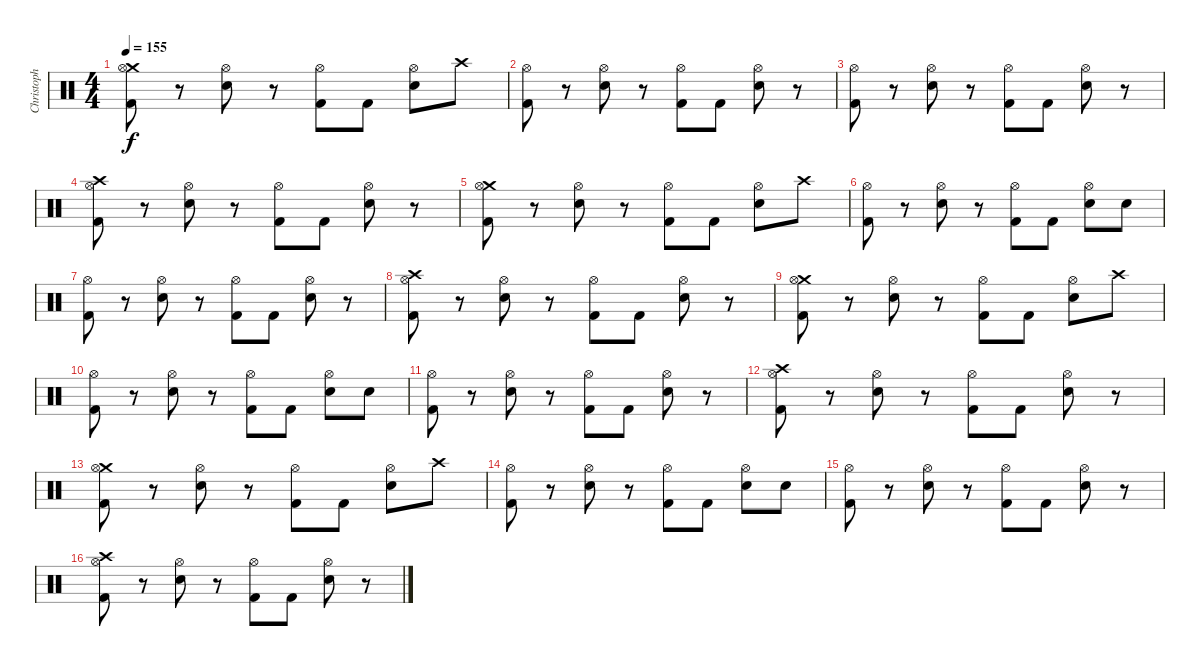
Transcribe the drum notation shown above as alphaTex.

\track ("Christoph \"Doom\" Schneider" "Christoph ") {instrument percussion}
\staff {score}
\articulation defaults
\ts (4 4)
\tempo 155
\clef neutral
\ks c
("Kick (hit) 2" "Crash medium (hit)" "Hi-Hat (open)").8{dy f} r.8 ("Electric Snare (hit)" "Hi-Hat (open)").8 r.8 ("Kick (hit) 2" "Hi-Hat (open)").8 "Kick (hit) 2".8 ("Electric Snare (hit)" "Hi-Hat (open)").8 "Crash high (hit)".8 |
("Kick (hit) 2" "Hi-Hat (open)").8 r.8 ("Electric Snare (hit)" "Hi-Hat (open)").8 r.8 ("Kick (hit) 2" "Hi-Hat (open)").8 "Kick (hit) 2".8 ("Electric Snare (hit)" "Hi-Hat (open)").8 r.8 |
("Kick (hit) 2" "Hi-Hat (open)").8 r.8 ("Electric Snare (hit)" "Hi-Hat (open)").8 r.8 ("Kick (hit) 2" "Hi-Hat (open)").8 "Kick (hit) 2".8 ("Electric Snare (hit)" "Hi-Hat (open)").8 r.8 |
("Kick (hit) 2" "Crash high (hit)" "Hi-Hat (open)").8 r.8 ("Electric Snare (hit)" "Hi-Hat (open)").8 r.8 ("Kick (hit) 2" "Hi-Hat (open)").8 "Kick (hit) 2".8 ("Electric Snare (hit)" "Hi-Hat (open)").8 r.8 |
("Kick (hit) 2" "Crash medium (hit)" "Hi-Hat (open)").8 r.8 ("Electric Snare (hit)" "Hi-Hat (open)").8 r.8 ("Kick (hit) 2" "Hi-Hat (open)").8 "Kick (hit) 2".8 ("Electric Snare (hit)" "Hi-Hat (open)").8 "Crash high (hit)".8 |
("Kick (hit) 2" "Hi-Hat (open)").8 r.8 ("Electric Snare (hit)" "Hi-Hat (open)").8 r.8 ("Kick (hit) 2" "Hi-Hat (open)").8 "Kick (hit) 2".8 ("Electric Snare (hit)" "Hi-Hat (open)").8 "Electric Snare (hit)".8 |
("Kick (hit) 2" "Hi-Hat (open)").8 r.8 ("Electric Snare (hit)" "Hi-Hat (open)").8 r.8 ("Kick (hit) 2" "Hi-Hat (open)").8 "Kick (hit) 2".8 ("Electric Snare (hit)" "Hi-Hat (open)").8 r.8 |
("Kick (hit) 2" "Crash high (hit)" "Hi-Hat (open)").8 r.8 ("Electric Snare (hit)" "Hi-Hat (open)").8 r.8 ("Kick (hit) 2" "Hi-Hat (open)").8 "Kick (hit) 2".8 ("Electric Snare (hit)" "Hi-Hat (open)").8 r.8 |
("Kick (hit) 2" "Crash medium (hit)" "Hi-Hat (open)").8 r.8 ("Electric Snare (hit)" "Hi-Hat (open)").8 r.8 ("Kick (hit) 2" "Hi-Hat (open)").8 "Kick (hit) 2".8 ("Electric Snare (hit)" "Hi-Hat (open)").8 "Crash high (hit)".8 |
("Kick (hit) 2" "Hi-Hat (open)").8 r.8 ("Electric Snare (hit)" "Hi-Hat (open)").8 r.8 ("Kick (hit) 2" "Hi-Hat (open)").8 "Kick (hit) 2".8 ("Electric Snare (hit)" "Hi-Hat (open)").8 "Electric Snare (hit)".8 |
("Kick (hit) 2" "Hi-Hat (open)").8 r.8 ("Electric Snare (hit)" "Hi-Hat (open)").8 r.8 ("Kick (hit) 2" "Hi-Hat (open)").8 "Kick (hit) 2".8 ("Electric Snare (hit)" "Hi-Hat (open)").8 r.8 |
("Kick (hit) 2" "Crash high (hit)" "Hi-Hat (open)").8 r.8 ("Electric Snare (hit)" "Hi-Hat (open)").8 r.8 ("Kick (hit) 2" "Hi-Hat (open)").8 "Kick (hit) 2".8 ("Electric Snare (hit)" "Hi-Hat (open)").8 r.8 |
("Kick (hit) 2" "Crash medium (hit)" "Hi-Hat (open)").8 r.8 ("Electric Snare (hit)" "Hi-Hat (open)").8 r.8 ("Kick (hit) 2" "Hi-Hat (open)").8 "Kick (hit) 2".8 ("Electric Snare (hit)" "Hi-Hat (open)").8 "Crash high (hit)".8 |
("Kick (hit) 2" "Hi-Hat (open)").8 r.8 ("Electric Snare (hit)" "Hi-Hat (open)").8 r.8 ("Kick (hit) 2" "Hi-Hat (open)").8 "Kick (hit) 2".8 ("Electric Snare (hit)" "Hi-Hat (open)").8 "Electric Snare (hit)".8 |
("Kick (hit) 2" "Hi-Hat (open)").8 r.8 ("Electric Snare (hit)" "Hi-Hat (open)").8 r.8 ("Kick (hit) 2" "Hi-Hat (open)").8 "Kick (hit) 2".8 ("Electric Snare (hit)" "Hi-Hat (open)").8 r.8 |
("Kick (hit) 2" "Crash high (hit)" "Hi-Hat (open)").8 r.8 ("Electric Snare (hit)" "Hi-Hat (open)").8 r.8 ("Kick (hit) 2" "Hi-Hat (open)").8 "Kick (hit) 2".8 ("Electric Snare (hit)" "Hi-Hat (open)").8 r.8
